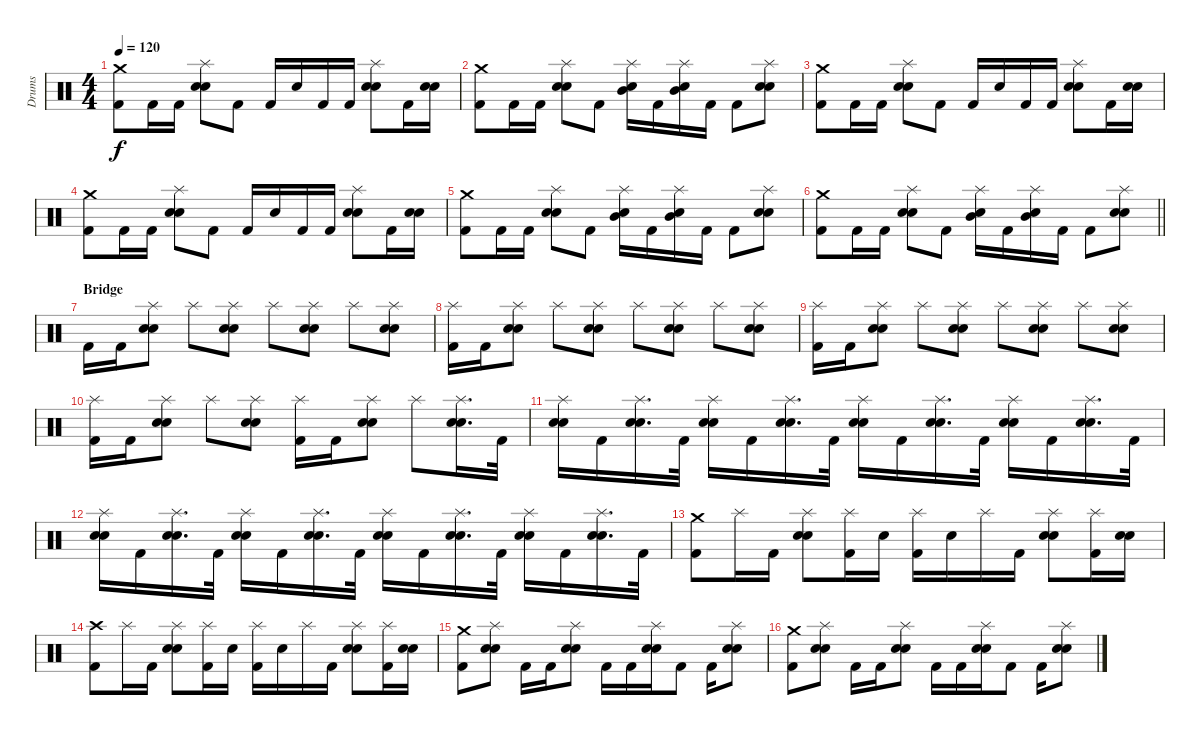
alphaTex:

\track ("Drums" "Drums") {instrument percussion}
\staff {score}
\articulation defaults
\ts (4 4)
\tempo 120
\clef neutral
\ks c
("Crash medium (hit)" "Kick (hit) 2").8{dy f} "Kick (hit) 2".16 "Kick (hit) 2".16 ("Splash (hit)" "Electric Snare (hit)" "Snare (hit) 2").8 "Kick (hit) 2".8 "Kick (hit) 2".16 "Electric Snare (hit)".16 "Kick (hit) 2".16 "Kick (hit) 2".16 ("Splash (hit)" "Electric Snare (hit)" "Snare (hit) 2").8 "Kick (hit) 2".16 ("Electric Snare (hit)" "Snare (hit) 2").16 |
("Crash medium (hit)" "Kick (hit) 2").8 "Kick (hit) 2".16 "Kick (hit) 2".16 ("Splash (hit)" "Electric Snare (hit)" "Snare (hit) 2").8 "Kick (hit) 2".8 ("Splash (hit)" "Electric Snare (hit)" "Mid Tom (hit)").16 "Kick (hit) 2".16 ("Splash (hit)" "Electric Snare (hit)" "Mid Tom (hit)").16 "Kick (hit) 2".16 "Kick (hit) 2".8 ("Splash (hit)" "Electric Snare (hit)" "Snare (hit) 2").8 |
("Crash medium (hit)" "Kick (hit) 2").8 "Kick (hit) 2".16 "Kick (hit) 2".16 ("Splash (hit)" "Electric Snare (hit)" "Snare (hit) 2").8 "Kick (hit) 2".8 "Kick (hit) 2".16 "Electric Snare (hit)".16 "Kick (hit) 2".16 "Kick (hit) 2".16 ("Splash (hit)" "Electric Snare (hit)" "Snare (hit) 2").8 "Kick (hit) 2".16 ("Electric Snare (hit)" "Snare (hit) 2").16 |
("Crash medium (hit)" "Kick (hit) 2").8 "Kick (hit) 2".16 "Kick (hit) 2".16 ("Splash (hit)" "Electric Snare (hit)" "Snare (hit) 2").8 "Kick (hit) 2".8 "Kick (hit) 2".16 "Electric Snare (hit)".16 "Kick (hit) 2".16 "Kick (hit) 2".16 ("Splash (hit)" "Electric Snare (hit)" "Snare (hit) 2").8 "Kick (hit) 2".16 ("Electric Snare (hit)" "Snare (hit) 2").16 |
("Crash medium (hit)" "Kick (hit) 2").8 "Kick (hit) 2".16 "Kick (hit) 2".16 ("Splash (hit)" "Electric Snare (hit)" "Snare (hit) 2").8 "Kick (hit) 2".8 ("Splash (hit)" "Electric Snare (hit)" "Mid Tom (hit)").16 "Kick (hit) 2".16 ("Splash (hit)" "Electric Snare (hit)" "Mid Tom (hit)").16 "Kick (hit) 2".16 "Kick (hit) 2".8 ("Splash (hit)" "Electric Snare (hit)" "Snare (hit) 2").8 |
\barLineRight lightlight
("Crash medium (hit)" "Kick (hit) 2").8 "Kick (hit) 2".16 "Kick (hit) 2".16 ("Splash (hit)" "Electric Snare (hit)" "Snare (hit) 2").8 "Kick (hit) 2".8 ("Splash (hit)" "Electric Snare (hit)" "Mid Tom (hit)").16 "Kick (hit) 2".16 ("Splash (hit)" "Electric Snare (hit)" "Mid Tom (hit)").16 "Kick (hit) 2".16 "Kick (hit) 2".8 ("Splash (hit)" "Electric Snare (hit)" "Snare (hit) 2").8 |
\section ("" "Bridge")
"Kick (hit) 2".16 "Kick (hit) 2".16 ("Splash (hit)" "Electric Snare (hit)" "Snare (hit) 2").8 "Splash (hit)".8 ("Splash (hit)" "Electric Snare (hit)" "Snare (hit) 2").8 "Splash (hit)".8 ("Splash (hit)" "Electric Snare (hit)" "Snare (hit) 2").8 "Splash (hit)".8 ("Splash (hit)" "Electric Snare (hit)" "Snare (hit) 2").8 |
("Splash (hit)" "Kick (hit) 2").16 "Kick (hit) 2".16 ("Splash (hit)" "Electric Snare (hit)" "Snare (hit) 2").8 "Splash (hit)".8 ("Splash (hit)" "Electric Snare (hit)" "Snare (hit) 2").8 "Splash (hit)".8 ("Splash (hit)" "Electric Snare (hit)" "Snare (hit) 2").8 "Splash (hit)".8 ("Splash (hit)" "Electric Snare (hit)" "Snare (hit) 2").8 |
("Splash (hit)" "Kick (hit) 2").16 "Kick (hit) 2".16 ("Splash (hit)" "Electric Snare (hit)" "Snare (hit) 2").8 "Splash (hit)".8 ("Splash (hit)" "Electric Snare (hit)" "Snare (hit) 2").8 "Splash (hit)".8 ("Splash (hit)" "Electric Snare (hit)" "Snare (hit) 2").8 "Splash (hit)".8 ("Splash (hit)" "Electric Snare (hit)" "Snare (hit) 2").8 |
("Splash (hit)" "Kick (hit) 2").16 "Kick (hit) 2".16 ("Splash (hit)" "Electric Snare (hit)" "Snare (hit) 2").8 "Splash (hit)".8 ("Splash (hit)" "Electric Snare (hit)" "Snare (hit) 2").8 ("Splash (hit)" "Kick (hit) 2").16 "Kick (hit) 2".16 ("Splash (hit)" "Electric Snare (hit)" "Snare (hit) 2").8 "Splash (hit)".8 ("Splash (hit)" "Electric Snare (hit)" "Snare (hit) 2").16{d} "Kick (hit) 2".32 |
("Splash (hit)" "Electric Snare (hit)" "Snare (hit) 2").16 "Kick (hit) 2".16 ("Splash (hit)" "Electric Snare (hit)" "Snare (hit) 2").16{d} "Kick (hit) 2".32 ("Splash (hit)" "Electric Snare (hit)" "Snare (hit) 2").16 "Kick (hit) 2".16 ("Splash (hit)" "Electric Snare (hit)" "Snare (hit) 2").16{d} "Kick (hit) 2".32 ("Splash (hit)" "Electric Snare (hit)" "Snare (hit) 2").16 "Kick (hit) 2".16 ("Splash (hit)" "Electric Snare (hit)" "Snare (hit) 2").16{d} "Kick (hit) 2".32 ("Splash (hit)" "Electric Snare (hit)" "Snare (hit) 2").16 "Kick (hit) 2".16 ("Splash (hit)" "Electric Snare (hit)" "Snare (hit) 2").16{d} "Kick (hit) 2".32 |
("Splash (hit)" "Electric Snare (hit)" "Snare (hit) 2").16 "Kick (hit) 2".16 ("Splash (hit)" "Electric Snare (hit)" "Snare (hit) 2").16{d} "Kick (hit) 2".32 ("Splash (hit)" "Electric Snare (hit)" "Snare (hit) 2").16 "Kick (hit) 2".16 ("Splash (hit)" "Electric Snare (hit)" "Snare (hit) 2").16{d} "Kick (hit) 2".32 ("Splash (hit)" "Electric Snare (hit)" "Snare (hit) 2").16 "Kick (hit) 2".16 ("Splash (hit)" "Electric Snare (hit)" "Snare (hit) 2").16{d} "Kick (hit) 2".32 ("Splash (hit)" "Electric Snare (hit)" "Snare (hit) 2").16 "Kick (hit) 2".16 ("Splash (hit)" "Electric Snare (hit)" "Snare (hit) 2").16{d} "Kick (hit) 2".32 |
("Crash medium (hit)" "Kick (hit) 2").8 "Splash (hit)".16 "Kick (hit) 2".16 ("Splash (hit)" "Electric Snare (hit)" "Snare (hit) 2").8 ("Splash (hit)" "Kick (hit) 2").16 "Electric Snare (hit)".16 ("Splash (hit)" "Kick (hit) 2").16 "Electric Snare (hit)".16 "Splash (hit)".16 "Kick (hit) 2".16 ("Splash (hit)" "Electric Snare (hit)" "Snare (hit) 2").8 ("Splash (hit)" "Kick (hit) 2").16 ("Electric Snare (hit)" "Snare (hit) 2").16 |
("Crash high (hit)" "Kick (hit) 2").8 "Splash (hit)".16 "Kick (hit) 2".16 ("Splash (hit)" "Electric Snare (hit)" "Snare (hit) 2").8 ("Splash (hit)" "Kick (hit) 2").16 "Electric Snare (hit)".16 ("Splash (hit)" "Kick (hit) 2").16 "Electric Snare (hit)".16 "Splash (hit)".16 "Kick (hit) 2".16 ("Splash (hit)" "Electric Snare (hit)" "Snare (hit) 2").8 ("Splash (hit)" "Kick (hit) 2").16 ("Electric Snare (hit)" "Snare (hit) 2").16 |
("Crash medium (hit)" "Kick (hit) 2").8 ("Splash (hit)" "Electric Snare (hit)" "Snare (hit) 2").8 "Kick (hit) 2".16 "Kick (hit) 2".16 ("Splash (hit)" "Electric Snare (hit)" "Snare (hit) 2").8 "Kick (hit) 2".16 "Kick (hit) 2".16 ("Splash (hit)" "Electric Snare (hit)" "Snare (hit) 2").16 "Kick (hit) 2".8 "Kick (hit) 2".16 ("Splash (hit)" "Electric Snare (hit)" "Snare (hit) 2").8 |
("Crash medium (hit)" "Kick (hit) 2").8 ("Splash (hit)" "Electric Snare (hit)" "Snare (hit) 2").8 "Kick (hit) 2".16 "Kick (hit) 2".16 ("Splash (hit)" "Electric Snare (hit)" "Snare (hit) 2").8 "Kick (hit) 2".16 "Kick (hit) 2".16 ("Splash (hit)" "Electric Snare (hit)" "Snare (hit) 2").16 "Kick (hit) 2".8 "Kick (hit) 2".16 ("Splash (hit)" "Electric Snare (hit)" "Snare (hit) 2").8
